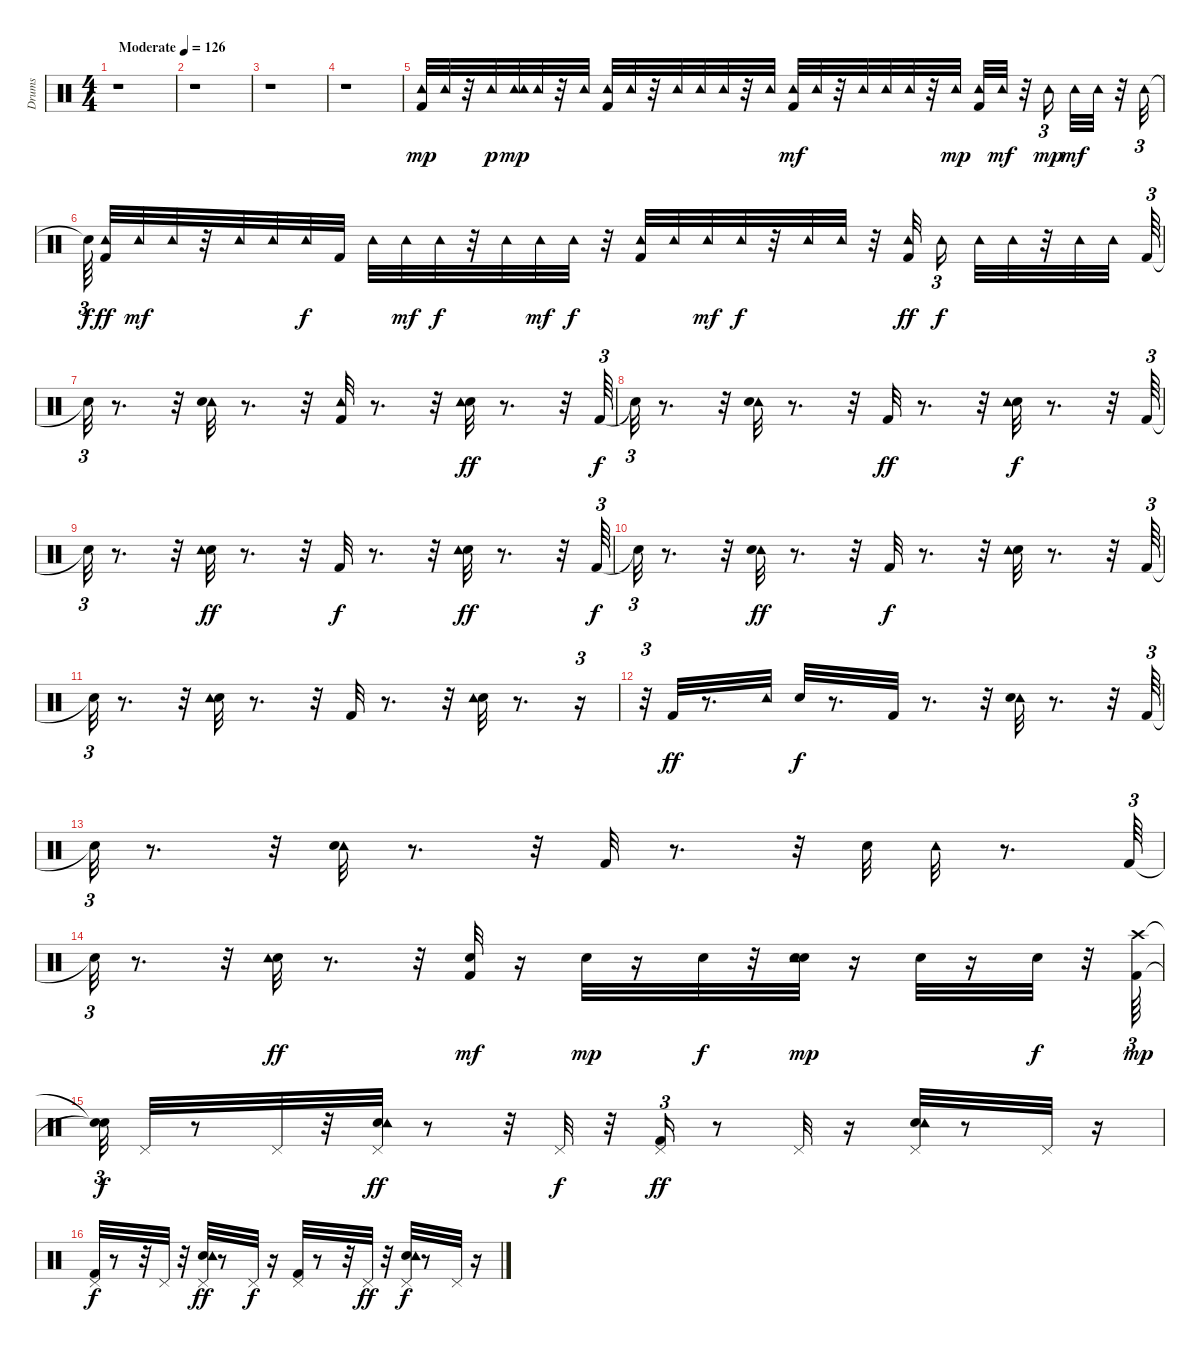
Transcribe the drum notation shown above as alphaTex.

\track ("Drums" "Drums") {instrument percussion}
\staff {score}
\articulation defaults
\ts (4 4)
\tempo (126 "Moderate")
\clef neutral
\ks c
r.1{dy mp} |
r.1 |
r.1 |
r.1 |
("Tambourine (hit)" "Kick (hit) 2").32 "Tambourine (hit)".32 r.32 "Tambourine (hit)".32{dy p} ("Tambourine (hit)" "Tambourine (hit)").32{dy mp} "Tambourine (hit)".32 r.32 "Tambourine (hit)".32 ("Kick (hit) 2" "Tambourine (hit)").32 "Tambourine (hit)".32 r.32 "Tambourine (hit)".32 "Tambourine (hit)".32 "Tambourine (hit)".32 r.32 "Tambourine (hit)".32 ("Tambourine (hit)" "Kick (hit) 2").32{dy mf} "Tambourine (hit)".32 r.32 "Tambourine (hit)".32 "Tambourine (hit)".32 "Tambourine (hit)".32 r.32 "Tambourine (hit)".32{dy mp} ("Kick (hit) 2" "Tambourine (hit)").32 "Tambourine (hit)".32{dy mf} r.32 "Tambourine (hit)".16{tu (3 2) dy mp} "Tambourine (hit)".32{dy mf} "Tambourine (hit)".32 r.32 "Tambourine (hit)".32{tu (3 2)} |
"Snare (hit)"{t}.64{tu (3 2) dy f} ("Tambourine (hit)" "Kick (hit) 2").32{dy ff} "Tambourine (hit)".32{dy mf} "Tambourine (hit)".32 r.32 "Tambourine (hit)".32 "Tambourine (hit)".32 "Tambourine (hit)".32{dy f} "Kick (hit) 2".32 "Tambourine (hit)".32 "Tambourine (hit)".32{dy mf} "Tambourine (hit)".32{dy f} r.32 "Tambourine (hit)".32 "Tambourine (hit)".32{dy mf} "Tambourine (hit)".32{dy f} r.32 ("Tambourine (hit)" "Kick (hit) 2").32 "Tambourine (hit)".32 "Tambourine (hit)".32{dy mf} "Tambourine (hit)".32{dy f} r.32 "Tambourine (hit)".32 "Tambourine (hit)".32 r.32 ("Kick (hit) 2" "Tambourine (hit)").32{dy ff} "Tambourine (hit)".16{tu (3 2) dy f} "Tambourine (hit)".32 "Tambourine (hit)".32 r.32 "Tambourine (hit)".32 "Tambourine (hit)".32 "Kick (hit) 2".64{tu (3 2)} |
"Snare (hit)"{t}.32{tu (3 2)} r.8{d} r.32 ("Tambourine (hit)" "Electric Snare (hit)").32 r.8{d} r.32 ("Tambourine (hit)" "Kick (hit) 2").32 r.8{d} r.32 ("Electric Snare (hit)" "Tambourine (hit)").32{dy ff} r.8{d} r.32 "Kick (hit) 2".64{tu (3 2) dy f} |
"Snare (hit)"{t}.32{tu (3 2)} r.8{d} r.32 ("Tambourine (hit)" "Electric Snare (hit)").32 r.8{d} r.32 "Kick (hit) 2".32{dy ff} r.8{d} r.32 ("Electric Snare (hit)" "Tambourine (hit)").32{dy f} r.8{d} r.32 "Kick (hit) 2".64{tu (3 2)} |
"Snare (hit)"{t}.32{tu (3 2)} r.8{d} r.32 ("Electric Snare (hit)" "Tambourine (hit)").32{dy ff} r.8{d} r.32 "Kick (hit) 2".32{dy f} r.8{d} r.32 ("Electric Snare (hit)" "Tambourine (hit)").32{dy ff} r.8{d} r.32 "Kick (hit) 2".64{tu (3 2) dy f} |
"Snare (hit)"{t}.32{tu (3 2)} r.8{d} r.32 ("Tambourine (hit)" "Electric Snare (hit)").32{dy ff} r.8{d} r.32 "Kick (hit) 2".32{dy f} r.8{d} r.32 ("Electric Snare (hit)" "Tambourine (hit)").32 r.8{d} r.32 "Kick (hit) 2".64{tu (3 2)} |
"Snare (hit)"{t}.32{tu (3 2)} r.8{d} r.32 ("Electric Snare (hit)" "Tambourine (hit)").32 r.8{d} r.32 "Kick (hit) 2".32 r.8{d} r.32 ("Electric Snare (hit)" "Tambourine (hit)").32 r.8{d} r.16{tu (3 2)} |
r.32{tu (3 2)} "Kick (hit) 2".32{dy ff} r.8{d} "Tambourine (hit)".32 "Electric Snare (hit)".32{dy f} r.8{d} "Kick (hit) 2".32 r.8{d} r.32 ("Tambourine (hit)" "Electric Snare (hit)").32 r.8{d} r.32 "Kick (hit) 2".64{tu (3 2)} |
"Snare (hit)"{t}.32{tu (3 2)} r.8{d} r.32 ("Tambourine (hit)" "Electric Snare (hit)").32 r.8{d} r.32 "Kick (hit) 2".32 r.8{d} r.32 "Electric Snare (hit)".32 "Tambourine (hit)".32 r.8{d} "Kick (hit) 2".64{tu (3 2)} |
"Snare (hit)"{t}.32{tu (3 2)} r.8{d} r.32 ("Electric Snare (hit)" "Tambourine (hit)").32{dy ff} r.8{d} r.32 ("Kick (hit) 2" "Snare (hit) 2").32{dy mf} r.16 "Snare (hit) 2".32{dy mp} r.16 "Snare (hit) 2".32{dy f} r.32 ("Electric Snare (hit)" "Snare (hit) 2" "Tambourine (hit)").32{dy mp} r.16 "Snare (hit) 2".32 r.16 "Snare (hit) 2".32{dy f} r.32 ("Kick (hit) 2" "Crash high (hit)").64{tu (3 2) dy mp} |
("Snare (hit)"{t} "Snare (hit)"{t}).32{tu (3 2) dy f} "Pedal Hi-Hat (hit)".32 r.8 "Pedal Hi-Hat (hit)".32 r.32 ("Pedal Hi-Hat (hit)" "Electric Snare (hit)" "Tambourine (hit)").32{dy ff} r.8 r.32 "Pedal Hi-Hat (hit)".32{dy f} r.32 ("Kick (hit) 2" "Pedal Hi-Hat (hit)").16{tu (3 2) dy ff} r.8 "Pedal Hi-Hat (hit)".32 r.16 ("Electric Snare (hit)" "Tambourine (hit)" "Pedal Hi-Hat (hit)").32 r.8 "Pedal Hi-Hat (hit)".32 r.16 |
("Kick (hit) 2" "Pedal Hi-Hat (hit)").32{dy f} r.8 r.32 "Pedal Hi-Hat (hit)".32 r.32 ("Pedal Hi-Hat (hit)" "Electric Snare (hit)" "Tambourine (hit)").32{dy ff} r.8 "Pedal Hi-Hat (hit)".32{dy f} r.16 ("Pedal Hi-Hat (hit)" "Kick (hit) 2").32 r.8 r.32 "Pedal Hi-Hat (hit)".32{dy ff} r.32 ("Pedal Hi-Hat (hit)" "Electric Snare (hit)" "Tambourine (hit)").32{dy f} r.8 "Pedal Hi-Hat (hit)".32 r.16
